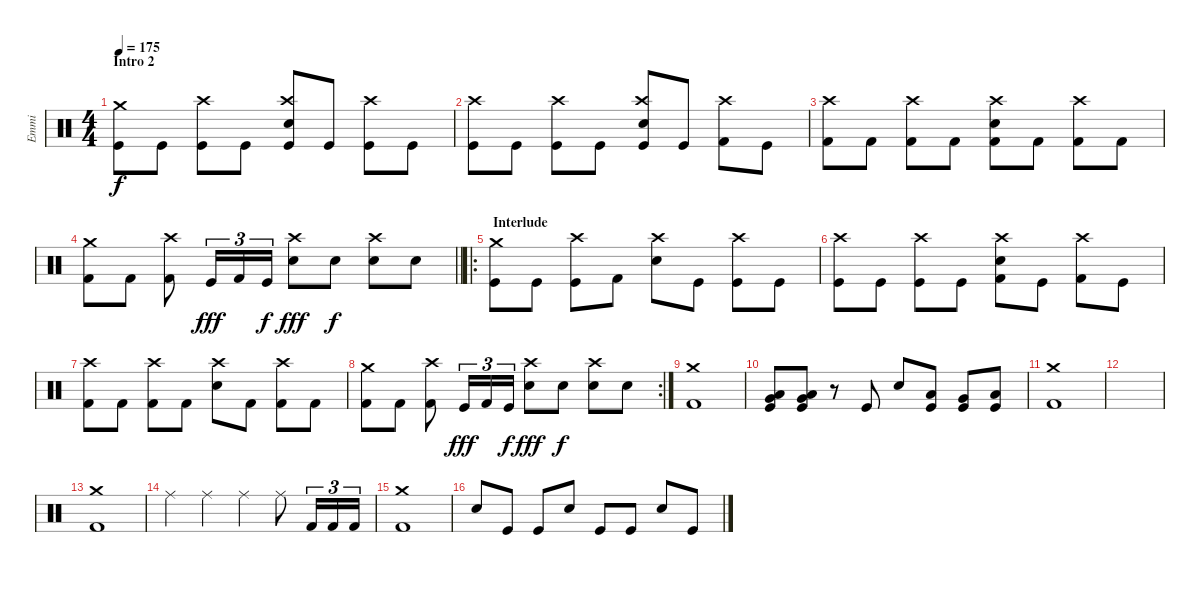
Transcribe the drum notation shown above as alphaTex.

\track ("Emmi" "Emmi") {instrument percussion}
\staff {score}
\articulation defaults
\ts (4 4)
\section ("" "Intro 2")
\tempo 175
\clef neutral
\ks c
("Crash medium (hit)" "Kick (hit)").8{dy f} "Kick (hit)".8 ("Crash high (hit)" "Kick (hit)").8 "Kick (hit)".8 ("Crash high (hit)" "Electric Snare (hit)" "Kick (hit)").8 "Kick (hit)".8 ("Crash high (hit)" "Kick (hit)").8 "Kick (hit)".8 |
("Crash high (hit)" "Kick (hit)").8 "Kick (hit)".8 ("Crash high (hit)" "Kick (hit)").8 "Kick (hit)".8 ("Crash high (hit)" "Electric Snare (hit)" "Kick (hit)").8 "Kick (hit)".8 ("Crash high (hit)" "Kick (hit) 2").8 "Kick (hit)".8 |
("Crash high (hit)" "Kick (hit) 2").8 "Kick (hit) 2".8 ("Crash high (hit)" "Kick (hit) 2").8 "Kick (hit) 2".8 ("Crash high (hit)" "Electric Snare (hit)" "Kick (hit) 2").8 "Kick (hit) 2".8 ("Crash high (hit)" "Kick (hit) 2").8 "Kick (hit) 2".8 |
\barLineRight lightlight
("Crash medium (hit)" "Kick (hit) 2").8 "Kick (hit) 2".8 ("Crash high (hit)" "Kick (hit) 2").8 "Kick (hit)".16{tu (3 2) dy fff} "Kick (hit) 2".16{tu (3 2)} "Kick (hit)".16{tu (3 2) dy f} ("Crash high (hit)" "Electric Snare (hit)").8{dy fff} "Electric Snare (hit)".8{dy f} ("Crash high (hit)" "Electric Snare (hit)").8 "Electric Snare (hit)".8 |
\ro
\section ("" " Interlude")
("Crash medium (hit)" "Kick (hit)").8 "Kick (hit)".8 ("Crash high (hit)" "Kick (hit)").8 "Kick (hit) 2".8 ("Crash high (hit)" "Electric Snare (hit)").8 "Kick (hit)".8 ("Crash high (hit)" "Kick (hit)").8 "Kick (hit)".8 |
("Crash high (hit)" "Kick (hit)").8 "Kick (hit)".8 ("Crash high (hit)" "Kick (hit)").8 "Kick (hit)".8 ("Crash high (hit)" "Electric Snare (hit)" "Kick (hit) 2").8 "Kick (hit)".8 ("Crash high (hit)" "Kick (hit) 2").8 "Kick (hit)".8 |
("Crash high (hit)" "Kick (hit) 2").8 "Kick (hit) 2".8 ("Crash high (hit)" "Kick (hit) 2").8 "Kick (hit) 2".8 ("Crash high (hit)" "Electric Snare (hit)").8 "Kick (hit) 2".8 ("Crash high (hit)" "Kick (hit) 2").8 "Kick (hit) 2".8 |
\rc 2
("Crash medium (hit)" "Kick (hit) 2").8 "Kick (hit) 2".8 ("Crash high (hit)" "Kick (hit) 2").8 "Kick (hit)".16{tu (3 2) dy fff} "Kick (hit) 2".16{tu (3 2)} "Kick (hit)".16{tu (3 2) dy f} ("Crash high (hit)" "Electric Snare (hit)").8{dy fff} "Electric Snare (hit)".8{dy f} ("Crash high (hit)" "Electric Snare (hit)").8 "Electric Snare (hit)".8 |
("Crash medium (hit)" "Kick (hit) 2").1 |
("Very Low Tom (hit)" "Low Floor Tom (hit)" "Kick (hit)").8 ("Very Low Tom (hit)" "Low Floor Tom (hit)" "Kick (hit)").8 r.8 "Kick (hit)".8 "Electric Snare (hit)".8 ("Low Tom (hit)" "Kick (hit)").8 ("Very Low Tom (hit)" "Kick (hit)").8 ("Low Floor Tom (hit)" "Kick (hit)").8 |
("Crash medium (hit)" "Kick (hit) 2").1 |
|
("Crash medium (hit)" "Kick (hit) 2").1 |
"Ride (middle)".4 "Ride (middle)".4 "Ride (middle)".4 "Ride (middle)".8 "Kick (hit) 2".16{tu (3 2)} "Kick (hit) 2".16{tu (3 2)} "Kick (hit) 2".16{tu (3 2)} |
("Crash medium (hit)" "Kick (hit) 2").1 |
"Electric Snare (hit)".8 "Kick (hit)".8 "Kick (hit)".8 "Electric Snare (hit)".8 "Kick (hit)".8 "Kick (hit)".8 "Electric Snare (hit)".8 "Kick (hit)".8
